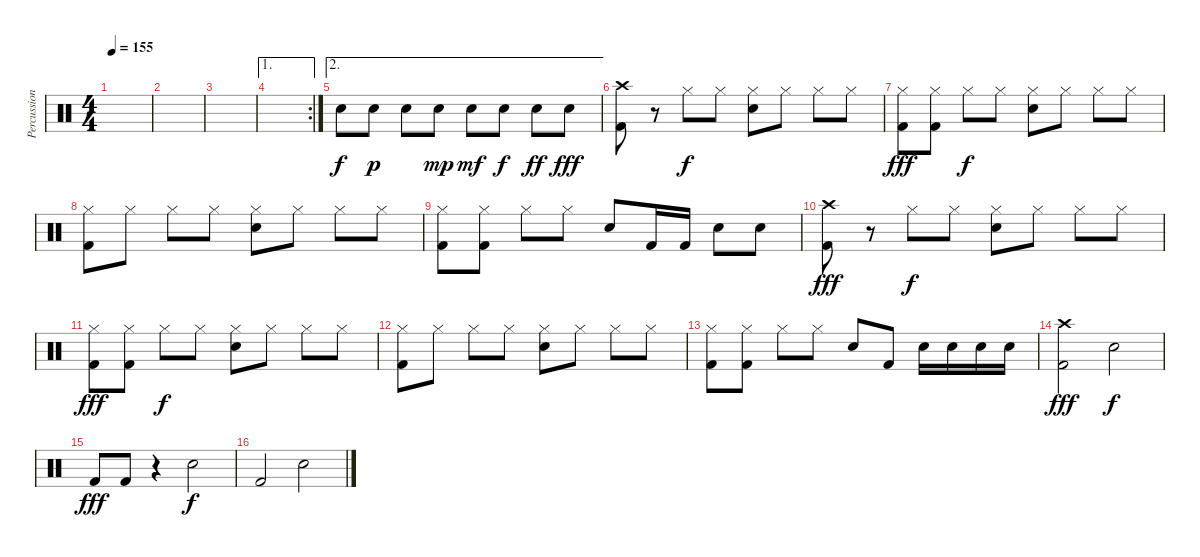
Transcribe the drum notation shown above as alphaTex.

\track ("Percussion" "Percussion") {instrument percussion}
\staff {score}
\articulation defaults
\ts (4 4)
\tempo 155
\clef neutral
\ks c
|
|
|
\ae 1
\rc 2
|
\ae 2 "Snare (hit) 2".8 "Snare (hit) 2".8{dy p} "Snare (hit) 2".8 "Snare (hit) 2".8{dy mp} "Snare (hit) 2".8{dy mf} "Snare (hit) 2".8{dy f} "Snare (hit) 2".8{dy ff} "Snare (hit) 2".8{dy fff}
|
("Crash high (hit)" "Kick (hit) 2").8 r.8 "Hi-Hat (closed)".8{dy f} "Hi-Hat (closed)".8 ("Hi-Hat (closed)" "Snare (hit) 2").8 "Hi-Hat (closed)".8 "Hi-Hat (closed)".8 "Hi-Hat (closed)".8 |
("Hi-Hat (closed)" "Kick (hit) 2").8{dy fff} ("Hi-Hat (closed)" "Kick (hit) 2").8 "Hi-Hat (closed)".8{dy f} "Hi-Hat (closed)".8 ("Hi-Hat (closed)" "Snare (hit) 2").8 "Hi-Hat (closed)".8 "Hi-Hat (closed)".8 "Hi-Hat (closed)".8 |
("Hi-Hat (closed)" "Kick (hit) 2").8 "Hi-Hat (closed)".8 "Hi-Hat (closed)".8 "Hi-Hat (closed)".8 ("Hi-Hat (closed)" "Snare (hit) 2").8 "Hi-Hat (closed)".8 "Hi-Hat (closed)".8 "Hi-Hat (closed)".8 |
("Hi-Hat (closed)" "Kick (hit) 2").8 ("Hi-Hat (closed)" "Kick (hit) 2").8 "Hi-Hat (closed)".8 "Hi-Hat (closed)".8 "Snare (hit) 2".8 "Kick (hit) 2".16 "Kick (hit) 2".16 "Snare (hit) 2".8 "Snare (hit) 2".8 |
("Crash high (hit)" "Kick (hit) 2").8{dy fff} r.8 "Hi-Hat (closed)".8{dy f} "Hi-Hat (closed)".8 ("Hi-Hat (closed)" "Snare (hit) 2").8 "Hi-Hat (closed)".8 "Hi-Hat (closed)".8 "Hi-Hat (closed)".8 |
("Hi-Hat (closed)" "Kick (hit) 2").8{dy fff} ("Hi-Hat (closed)" "Kick (hit) 2").8 "Hi-Hat (closed)".8{dy f} "Hi-Hat (closed)".8 ("Hi-Hat (closed)" "Snare (hit) 2").8 "Hi-Hat (closed)".8 "Hi-Hat (closed)".8 "Hi-Hat (closed)".8 |
("Hi-Hat (closed)" "Kick (hit) 2").8 "Hi-Hat (closed)".8 "Hi-Hat (closed)".8 "Hi-Hat (closed)".8 ("Hi-Hat (closed)" "Snare (hit) 2").8 "Hi-Hat (closed)".8 "Hi-Hat (closed)".8 "Hi-Hat (closed)".8 |
("Hi-Hat (closed)" "Kick (hit) 2").8 ("Hi-Hat (closed)" "Kick (hit) 2").8 "Hi-Hat (closed)".8 "Hi-Hat (closed)".8 "Snare (hit) 2".8 "Kick (hit) 2".8 "Snare (hit) 2".16 "Snare (hit) 2".16 "Snare (hit) 2".16 "Snare (hit) 2".16 |
("Crash high (hit)" "Kick (hit) 2").2{dy fff} "Snare (hit) 2".2{dy f} |
"Kick (hit) 2".8{dy fff} "Kick (hit) 2".8 r.4 "Snare (hit) 2".2{dy f} |
"Kick (hit) 2".2 "Snare (hit) 2".2
